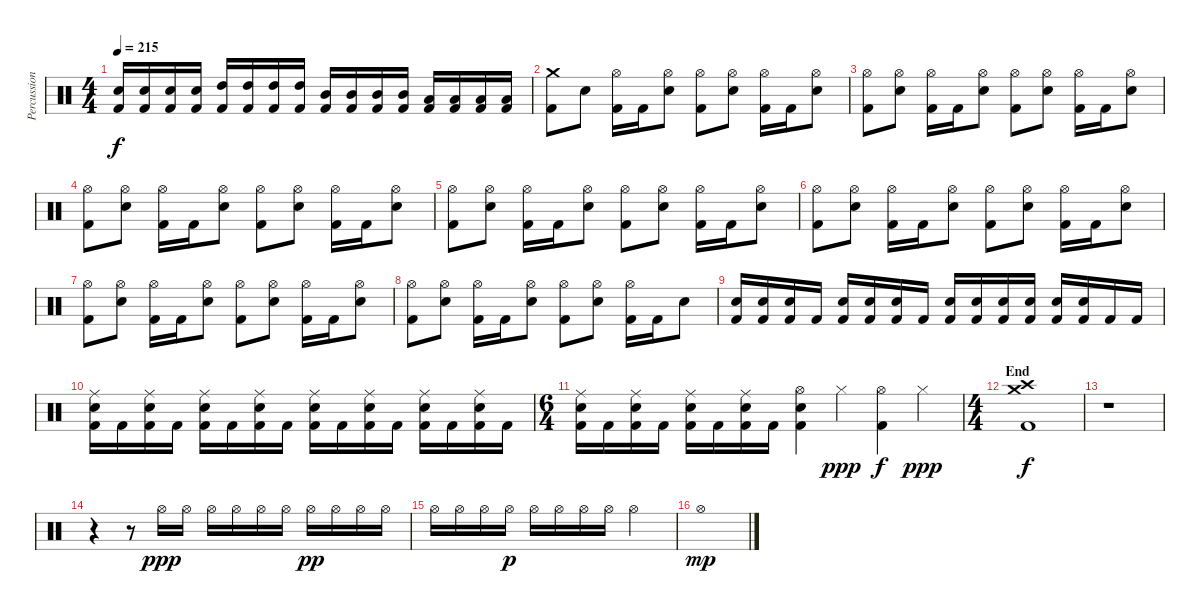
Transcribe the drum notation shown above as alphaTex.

\track ("Percussion" "Percussion") {instrument percussion}
\staff {score}
\articulation defaults
\ts (4 4)
\tempo 215
\clef neutral
\ks c
("Snare (hit) 2" "Kick (hit) 2").16{dy f} ("Snare (hit) 2" "Kick (hit) 2").16 ("Snare (hit) 2" "Kick (hit) 2").16 ("Snare (hit) 2" "Kick (hit) 2").16 ("High Tom (hit)" "Kick (hit) 2").16 ("High Tom (hit)" "Kick (hit) 2").16 ("High Tom (hit)" "Kick (hit) 2").16 ("High Tom (hit)" "Kick (hit) 2").16 ("Mid Tom (hit)" "Kick (hit) 2").16 ("Mid Tom (hit)" "Kick (hit) 2").16 ("Mid Tom (hit)" "Kick (hit) 2").16 ("Mid Tom (hit)" "Kick (hit) 2").16 ("Low Tom (hit)" "Kick (hit) 2").16 ("Low Tom (hit)" "Kick (hit) 2").16 ("Low Tom (hit)" "Kick (hit) 2").16 ("Low Tom (hit)" "Kick (hit) 2").16 |
("Crash medium (hit)" "Kick (hit) 2").8 "Snare (hit) 2".8 ("Hi-Hat (open)" "Kick (hit) 2").16 "Kick (hit) 2".16 ("Hi-Hat (open)" "Snare (hit) 2").8 ("Hi-Hat (open)" "Kick (hit) 2").8 ("Hi-Hat (open)" "Snare (hit) 2").8 ("Hi-Hat (open)" "Kick (hit) 2").16 "Kick (hit) 2".16 ("Hi-Hat (open)" "Snare (hit) 2").8 |
("Hi-Hat (open)" "Kick (hit) 2").8 ("Hi-Hat (open)" "Snare (hit) 2").8 ("Hi-Hat (open)" "Kick (hit) 2").16 "Kick (hit) 2".16 ("Hi-Hat (open)" "Snare (hit) 2").8 ("Hi-Hat (open)" "Kick (hit) 2").8 ("Hi-Hat (open)" "Snare (hit) 2").8 ("Hi-Hat (open)" "Kick (hit) 2").16 "Kick (hit) 2".16 ("Hi-Hat (open)" "Snare (hit) 2").8 |
("Hi-Hat (open)" "Kick (hit) 2").8 ("Hi-Hat (open)" "Snare (hit) 2").8 ("Hi-Hat (open)" "Kick (hit) 2").16 "Kick (hit) 2".16 ("Hi-Hat (open)" "Snare (hit) 2").8 ("Hi-Hat (open)" "Kick (hit) 2").8 ("Hi-Hat (open)" "Snare (hit) 2").8 ("Hi-Hat (open)" "Kick (hit) 2").16 "Kick (hit) 2".16 ("Hi-Hat (open)" "Snare (hit) 2").8 |
("Hi-Hat (open)" "Kick (hit) 2").8 ("Hi-Hat (open)" "Snare (hit) 2").8 ("Hi-Hat (open)" "Kick (hit) 2").16 "Kick (hit) 2".16 ("Hi-Hat (open)" "Snare (hit) 2").8 ("Hi-Hat (open)" "Kick (hit) 2").8 ("Hi-Hat (open)" "Snare (hit) 2").8 ("Hi-Hat (open)" "Kick (hit) 2").16 "Kick (hit) 2".16 ("Hi-Hat (open)" "Snare (hit) 2").8 |
("Hi-Hat (open)" "Kick (hit) 2").8 ("Hi-Hat (open)" "Snare (hit) 2").8 ("Hi-Hat (open)" "Kick (hit) 2").16 "Kick (hit) 2".16 ("Hi-Hat (open)" "Snare (hit) 2").8 ("Hi-Hat (open)" "Kick (hit) 2").8 ("Hi-Hat (open)" "Snare (hit) 2").8 ("Hi-Hat (open)" "Kick (hit) 2").16 "Kick (hit) 2".16 ("Hi-Hat (open)" "Snare (hit) 2").8 |
("Hi-Hat (open)" "Kick (hit) 2").8 ("Hi-Hat (open)" "Snare (hit) 2").8 ("Hi-Hat (open)" "Kick (hit) 2").16 "Kick (hit) 2".16 ("Hi-Hat (open)" "Snare (hit) 2").8 ("Hi-Hat (open)" "Kick (hit) 2").8 ("Hi-Hat (open)" "Snare (hit) 2").8 ("Hi-Hat (open)" "Kick (hit) 2").16 "Kick (hit) 2".16 ("Hi-Hat (open)" "Snare (hit) 2").8 |
("Hi-Hat (open)" "Kick (hit) 2").8 ("Hi-Hat (open)" "Snare (hit) 2").8 ("Hi-Hat (open)" "Kick (hit) 2").16 "Kick (hit) 2".16 ("Hi-Hat (open)" "Snare (hit) 2").8 ("Hi-Hat (open)" "Kick (hit) 2").8 ("Hi-Hat (open)" "Snare (hit) 2").8 ("Hi-Hat (open)" "Kick (hit) 2").16 "Kick (hit) 2".16 "Snare (hit) 2".8 |
("Snare (hit) 2" "Kick (hit) 2").16 ("Snare (hit) 2" "Kick (hit) 2").16 ("Snare (hit) 2" "Kick (hit) 2").16 "Kick (hit) 2".16 ("Snare (hit) 2" "Kick (hit) 2").16 ("Snare (hit) 2" "Kick (hit) 2").16 ("Snare (hit) 2" "Kick (hit) 2").16 "Kick (hit) 2".16 ("Snare (hit) 2" "Kick (hit) 2").16 ("Snare (hit) 2" "Kick (hit) 2").16 ("Snare (hit) 2" "Kick (hit) 2").16 ("Snare (hit) 2" "Kick (hit) 2").16 ("Snare (hit) 2" "Kick (hit) 2").16 ("Snare (hit) 2" "Kick (hit) 2").16 "Kick (hit) 2".16 "Kick (hit) 2".16 |
("Ride (middle)" "Snare (hit) 2" "Kick (hit) 2").16 "Kick (hit) 2".16 ("Ride (middle)" "Snare (hit) 2" "Kick (hit) 2").16 "Kick (hit) 2".16 ("Ride (middle)" "Snare (hit) 2" "Kick (hit) 2").16 "Kick (hit) 2".16 ("Ride (middle)" "Snare (hit) 2" "Kick (hit) 2").16 "Kick (hit) 2".16 ("Ride (middle)" "Snare (hit) 2" "Kick (hit) 2").16 "Kick (hit) 2".16 ("Ride (middle)" "Snare (hit) 2" "Kick (hit) 2").16 "Kick (hit) 2".16 ("Ride (middle)" "Snare (hit) 2" "Kick (hit) 2").16 "Kick (hit) 2".16 ("Ride (middle)" "Snare (hit) 2" "Kick (hit) 2").16 "Kick (hit) 2".16 |
\ts (6 4)
("Ride (middle)" "Snare (hit) 2" "Kick (hit) 2").16 "Kick (hit) 2".16 ("Ride (middle)" "Snare (hit) 2" "Kick (hit) 2").16 "Kick (hit) 2".16 ("Ride (middle)" "Snare (hit) 2" "Kick (hit) 2").16 "Kick (hit) 2".16 ("Ride (middle)" "Snare (hit) 2" "Kick (hit) 2").16 "Kick (hit) 2".16 ("Hi-Hat (open)" "Snare (hit) 2" "Kick (hit) 2").4 "Hi-Hat (closed)".4{dy ppp} ("Hi-Hat (open)" "Kick (hit) 2").4{dy f} "Hi-Hat (closed)".4{dy ppp} |
\ts (4 4)
\section ("" "End")
("Crash medium (hit)" "Crash high (hit)" "Kick (hit) 2").1{dy f} |
r.1 |
r.4 r.8 "Hi-Hat (open)".16{dy ppp} "Hi-Hat (open)".16 "Hi-Hat (open)".16 "Hi-Hat (open)".16 "Hi-Hat (open)".16 "Hi-Hat (open)".16 "Hi-Hat (open)".16{dy pp} "Hi-Hat (open)".16 "Hi-Hat (open)".16 "Hi-Hat (open)".16 |
"Hi-Hat (open)".16 "Hi-Hat (open)".16 "Hi-Hat (open)".16 "Hi-Hat (open)".16{dy p} "Hi-Hat (open)".16 "Hi-Hat (open)".16 "Hi-Hat (open)".16 "Hi-Hat (open)".16 "Hi-Hat (open)".2 |
"Hi-Hat (open)".1{dy mp}
